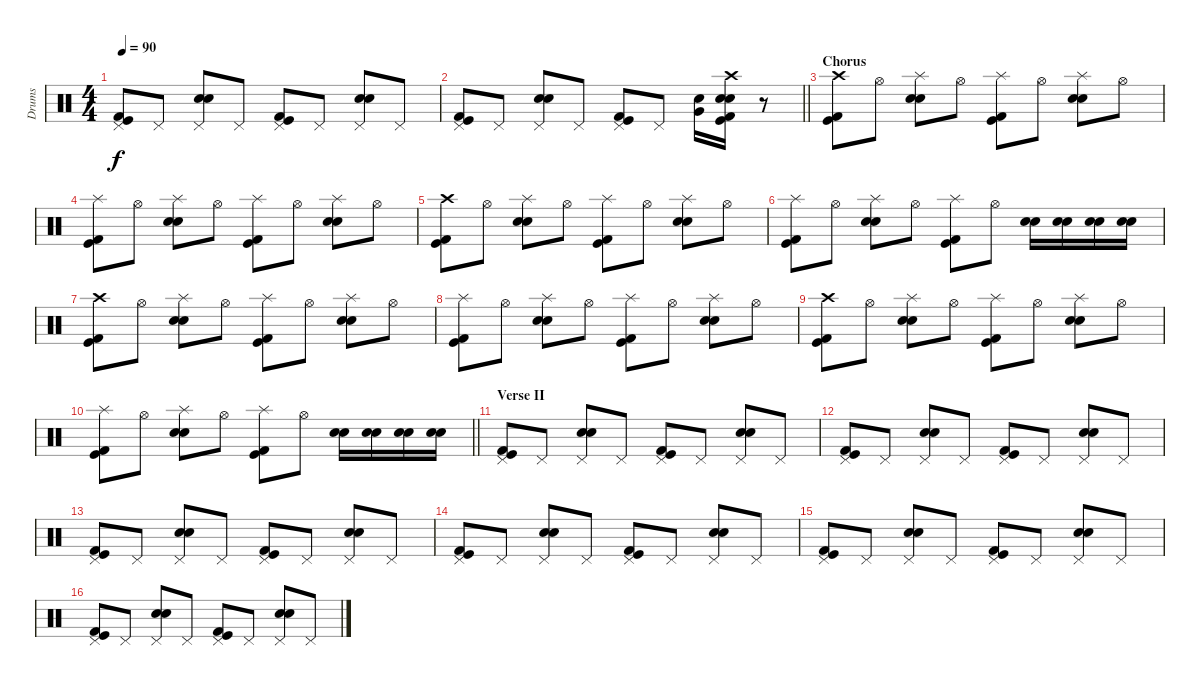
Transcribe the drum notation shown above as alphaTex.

\track ("Drums" "Drums") {instrument percussion}
\staff {score}
\articulation defaults
\ts (4 4)
\tempo 90
\clef neutral
\ks c
("Pedal Hi-Hat (hit)" "Kick (hit) 2" "Kick (hit)").8{dy f} "Pedal Hi-Hat (hit)".8 ("Pedal Hi-Hat (hit)" "Electric Snare (hit)" "Snare (hit) 2").8 "Pedal Hi-Hat (hit)".8 ("Pedal Hi-Hat (hit)" "Kick (hit) 2" "Kick (hit)").8 "Pedal Hi-Hat (hit)".8 ("Pedal Hi-Hat (hit)" "Electric Snare (hit)" "Snare (hit) 2").8 "Pedal Hi-Hat (hit)".8 |
\barLineRight lightlight
("Pedal Hi-Hat (hit)" "Kick (hit) 2" "Kick (hit)").8 "Pedal Hi-Hat (hit)".8 ("Pedal Hi-Hat (hit)" "Electric Snare (hit)" "Snare (hit) 2").8 "Pedal Hi-Hat (hit)".8 ("Pedal Hi-Hat (hit)" "Kick (hit) 2" "Kick (hit)").8 "Pedal Hi-Hat (hit)".8 ("Very Low Tom (hit)" "Snare (hit) 2").16 ("Crash high (hit)" "Electric Snare (hit)" "Snare (hit) 2" "Kick (hit) 2" "Kick (hit)").16 r.8 |
\section ("" "Chorus")
("Crash high (hit)" "Kick (hit) 2" "Kick (hit)").8 "Hi-Hat (open)".8 ("Splash (hit)" "Electric Snare (hit)" "Snare (hit) 2").8 "Hi-Hat (open)".8 ("Splash (hit)" "Kick (hit) 2" "Kick (hit)").8 "Hi-Hat (open)".8 ("Splash (hit)" "Electric Snare (hit)" "Snare (hit) 2").8 "Hi-Hat (open)".8 |
("Splash (hit)" "Kick (hit) 2" "Kick (hit)").8 "Hi-Hat (open)".8 ("Splash (hit)" "Electric Snare (hit)" "Snare (hit) 2").8 "Hi-Hat (open)".8 ("Splash (hit)" "Kick (hit) 2" "Kick (hit)").8 "Hi-Hat (open)".8 ("Splash (hit)" "Electric Snare (hit)" "Snare (hit) 2").8 "Hi-Hat (open)".8 |
("Crash high (hit)" "Kick (hit) 2" "Kick (hit)").8 "Hi-Hat (open)".8 ("Splash (hit)" "Electric Snare (hit)" "Snare (hit) 2").8 "Hi-Hat (open)".8 ("Splash (hit)" "Kick (hit) 2" "Kick (hit)").8 "Hi-Hat (open)".8 ("Splash (hit)" "Electric Snare (hit)" "Snare (hit) 2").8 "Hi-Hat (open)".8 |
("Splash (hit)" "Kick (hit) 2" "Kick (hit)").8 "Hi-Hat (open)".8 ("Splash (hit)" "Electric Snare (hit)" "Snare (hit) 2").8 "Hi-Hat (open)".8 ("Splash (hit)" "Kick (hit) 2" "Kick (hit)").8 "Hi-Hat (open)".8 ("Electric Snare (hit)" "Snare (hit) 2").16 ("Electric Snare (hit)" "Snare (hit) 2").16 ("Electric Snare (hit)" "Snare (hit) 2").16 ("Electric Snare (hit)" "Snare (hit) 2").16 |
("Crash high (hit)" "Kick (hit) 2" "Kick (hit)").8 "Hi-Hat (open)".8 ("Splash (hit)" "Electric Snare (hit)" "Snare (hit) 2").8 "Hi-Hat (open)".8 ("Splash (hit)" "Kick (hit) 2" "Kick (hit)").8 "Hi-Hat (open)".8 ("Splash (hit)" "Electric Snare (hit)" "Snare (hit) 2").8 "Hi-Hat (open)".8 |
("Splash (hit)" "Kick (hit) 2" "Kick (hit)").8 "Hi-Hat (open)".8 ("Splash (hit)" "Electric Snare (hit)" "Snare (hit) 2").8 "Hi-Hat (open)".8 ("Splash (hit)" "Kick (hit) 2" "Kick (hit)").8 "Hi-Hat (open)".8 ("Splash (hit)" "Electric Snare (hit)" "Snare (hit) 2").8 "Hi-Hat (open)".8 |
("Crash high (hit)" "Kick (hit) 2" "Kick (hit)").8 "Hi-Hat (open)".8 ("Splash (hit)" "Electric Snare (hit)" "Snare (hit) 2").8 "Hi-Hat (open)".8 ("Splash (hit)" "Kick (hit) 2" "Kick (hit)").8 "Hi-Hat (open)".8 ("Splash (hit)" "Electric Snare (hit)" "Snare (hit) 2").8 "Hi-Hat (open)".8 |
\barLineRight lightlight
("Splash (hit)" "Kick (hit) 2" "Kick (hit)").8 "Hi-Hat (open)".8 ("Splash (hit)" "Electric Snare (hit)" "Snare (hit) 2").8 "Hi-Hat (open)".8 ("Splash (hit)" "Kick (hit) 2" "Kick (hit)").8 "Hi-Hat (open)".8 ("Electric Snare (hit)" "Snare (hit) 2").16 ("Electric Snare (hit)" "Snare (hit) 2").16 ("Electric Snare (hit)" "Snare (hit) 2").16 ("Electric Snare (hit)" "Snare (hit) 2").16 |
\section ("" "Verse II")
("Pedal Hi-Hat (hit)" "Kick (hit) 2" "Kick (hit)").8 "Pedal Hi-Hat (hit)".8 ("Pedal Hi-Hat (hit)" "Electric Snare (hit)" "Snare (hit) 2").8 "Pedal Hi-Hat (hit)".8 ("Pedal Hi-Hat (hit)" "Kick (hit) 2" "Kick (hit)").8 "Pedal Hi-Hat (hit)".8 ("Pedal Hi-Hat (hit)" "Electric Snare (hit)" "Snare (hit) 2").8 "Pedal Hi-Hat (hit)".8 |
("Pedal Hi-Hat (hit)" "Kick (hit) 2" "Kick (hit)").8 "Pedal Hi-Hat (hit)".8 ("Pedal Hi-Hat (hit)" "Electric Snare (hit)" "Snare (hit) 2").8 "Pedal Hi-Hat (hit)".8 ("Pedal Hi-Hat (hit)" "Kick (hit) 2" "Kick (hit)").8 "Pedal Hi-Hat (hit)".8 ("Pedal Hi-Hat (hit)" "Electric Snare (hit)" "Snare (hit) 2").8 "Pedal Hi-Hat (hit)".8 |
("Pedal Hi-Hat (hit)" "Kick (hit) 2" "Kick (hit)").8 "Pedal Hi-Hat (hit)".8 ("Pedal Hi-Hat (hit)" "Electric Snare (hit)" "Snare (hit) 2").8 "Pedal Hi-Hat (hit)".8 ("Pedal Hi-Hat (hit)" "Kick (hit) 2" "Kick (hit)").8 "Pedal Hi-Hat (hit)".8 ("Pedal Hi-Hat (hit)" "Electric Snare (hit)" "Snare (hit) 2").8 "Pedal Hi-Hat (hit)".8 |
("Pedal Hi-Hat (hit)" "Kick (hit) 2" "Kick (hit)").8 "Pedal Hi-Hat (hit)".8 ("Pedal Hi-Hat (hit)" "Electric Snare (hit)" "Snare (hit) 2").8 "Pedal Hi-Hat (hit)".8 ("Pedal Hi-Hat (hit)" "Kick (hit) 2" "Kick (hit)").8 "Pedal Hi-Hat (hit)".8 ("Pedal Hi-Hat (hit)" "Electric Snare (hit)" "Snare (hit) 2").8 "Pedal Hi-Hat (hit)".8 |
("Pedal Hi-Hat (hit)" "Kick (hit) 2" "Kick (hit)").8 "Pedal Hi-Hat (hit)".8 ("Pedal Hi-Hat (hit)" "Electric Snare (hit)" "Snare (hit) 2").8 "Pedal Hi-Hat (hit)".8 ("Pedal Hi-Hat (hit)" "Kick (hit) 2" "Kick (hit)").8 "Pedal Hi-Hat (hit)".8 ("Pedal Hi-Hat (hit)" "Electric Snare (hit)" "Snare (hit) 2").8 "Pedal Hi-Hat (hit)".8 |
("Pedal Hi-Hat (hit)" "Kick (hit) 2" "Kick (hit)").8 "Pedal Hi-Hat (hit)".8 ("Pedal Hi-Hat (hit)" "Electric Snare (hit)" "Snare (hit) 2").8 "Pedal Hi-Hat (hit)".8 ("Pedal Hi-Hat (hit)" "Kick (hit) 2" "Kick (hit)").8 "Pedal Hi-Hat (hit)".8 ("Pedal Hi-Hat (hit)" "Electric Snare (hit)" "Snare (hit) 2").8 "Pedal Hi-Hat (hit)".8
